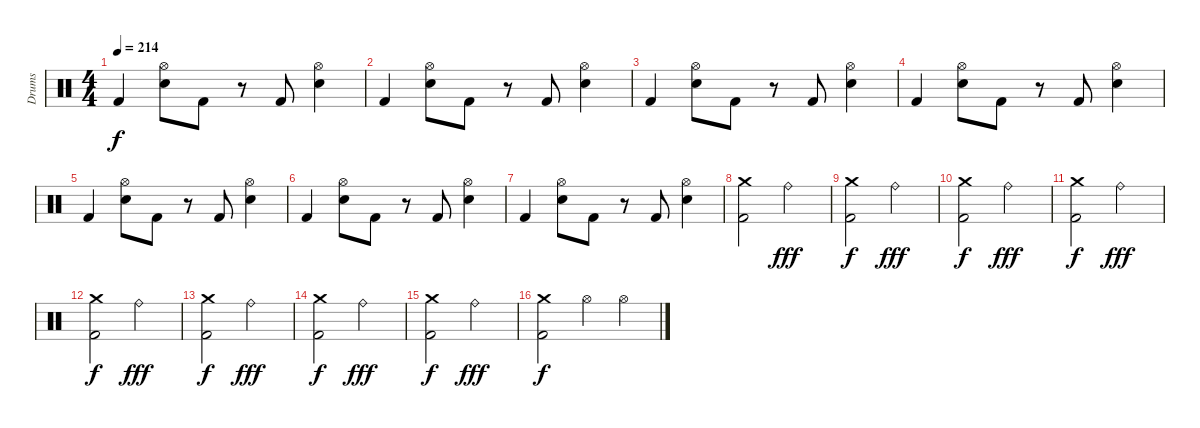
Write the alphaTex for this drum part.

\track ("Drums" "Drums") {instrument percussion}
\staff {score}
\articulation defaults
\ts (4 4)
\tempo 214
\clef neutral
\ks c "Kick (hit) 2".4{dy f}
("Snare (hit) 2" "Hi-Hat (open)").8 "Kick (hit) 2".8 r.8 "Kick (hit) 2".8 ("Snare (hit) 2" "Hi-Hat (open)").4 |
"Kick (hit) 2".4 ("Snare (hit) 2" "Hi-Hat (open)").8 "Kick (hit) 2".8 r.8 "Kick (hit) 2".8 ("Snare (hit) 2" "Hi-Hat (open)").4 |
"Kick (hit) 2".4 ("Snare (hit) 2" "Hi-Hat (open)").8 "Kick (hit) 2".8 r.8 "Kick (hit) 2".8 ("Snare (hit) 2" "Hi-Hat (open)").4 |
"Kick (hit) 2".4 ("Snare (hit) 2" "Hi-Hat (open)").8 "Kick (hit) 2".8 r.8 "Kick (hit) 2".8 ("Snare (hit) 2" "Hi-Hat (open)").4 |
"Kick (hit) 2".4 ("Snare (hit) 2" "Hi-Hat (open)").8 "Kick (hit) 2".8 r.8 "Kick (hit) 2".8 ("Snare (hit) 2" "Hi-Hat (open)").4 |
"Kick (hit) 2".4 ("Snare (hit) 2" "Hi-Hat (open)").8 "Kick (hit) 2".8 r.8 "Kick (hit) 2".8 ("Snare (hit) 2" "Hi-Hat (open)").4 |
"Kick (hit) 2".4 ("Snare (hit) 2" "Hi-Hat (open)").8 "Kick (hit) 2".8 r.8 "Kick (hit) 2".8 ("Snare (hit) 2" "Hi-Hat (open)").4 |
("Kick (hit) 2" "Crash medium (hit)").2 "Ride (bell)".2{dy fff} |
("Kick (hit) 2" "Crash medium (hit)").2{dy f} "Ride (bell)".2{dy fff} |
("Kick (hit) 2" "Crash medium (hit)").2{dy f} "Ride (bell)".2{dy fff} |
("Kick (hit) 2" "Crash medium (hit)").2{dy f} "Ride (bell)".2{dy fff} |
("Kick (hit) 2" "Crash medium (hit)").2{dy f} "Ride (bell)".2{dy fff} |
("Kick (hit) 2" "Crash medium (hit)").2{dy f} "Ride (bell)".2{dy fff} |
("Kick (hit) 2" "Crash medium (hit)").2{dy f} "Ride (bell)".2{dy fff} |
("Kick (hit) 2" "Crash medium (hit)").2{dy f} "Ride (bell)".2{dy fff} |
("Kick (hit) 2" "Crash medium (hit)").2{dy f} "Hi-Hat (open)".4 "Hi-Hat (open)".4
